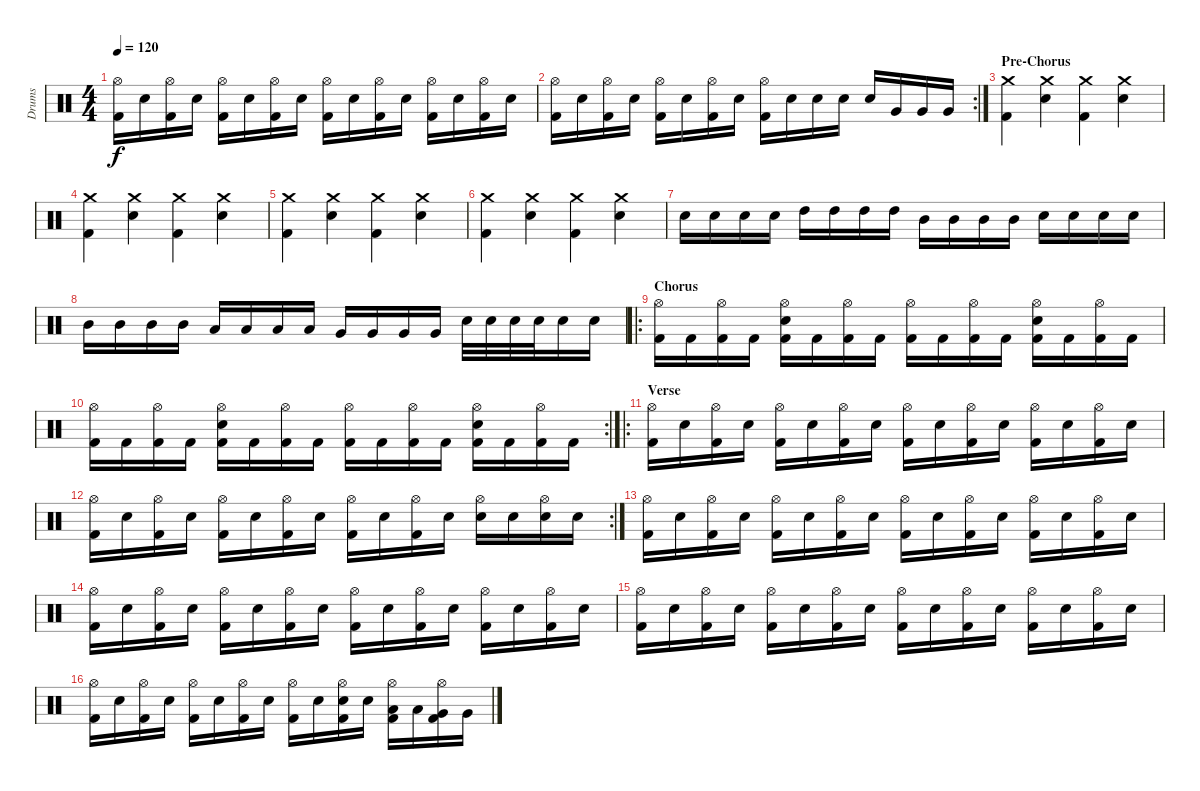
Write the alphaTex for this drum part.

\track ("Drums" "Drums") {instrument percussion}
\staff {score}
\articulation defaults
\ts (4 4)
\tempo 120
\clef neutral
\ks c
("Hi-Hat (open)" "Kick (hit) 2").16{dy f} "Electric Snare (hit)".16 ("Hi-Hat (open)" "Kick (hit) 2").16 "Electric Snare (hit)".16 ("Hi-Hat (open)" "Kick (hit) 2").16 "Electric Snare (hit)".16 ("Hi-Hat (open)" "Kick (hit) 2").16 "Electric Snare (hit)".16 ("Hi-Hat (open)" "Kick (hit) 2").16 "Electric Snare (hit)".16 ("Hi-Hat (open)" "Kick (hit) 2").16 "Electric Snare (hit)".16 ("Hi-Hat (open)" "Kick (hit) 2").16 "Electric Snare (hit)".16 ("Hi-Hat (open)" "Kick (hit) 2").16 "Electric Snare (hit)".16 |
\rc 2
("Hi-Hat (open)" "Kick (hit) 2").16 "Electric Snare (hit)".16 ("Hi-Hat (open)" "Kick (hit) 2").16 "Electric Snare (hit)".16 ("Hi-Hat (open)" "Kick (hit) 2").16 "Electric Snare (hit)".16 ("Hi-Hat (open)" "Kick (hit) 2").16 "Electric Snare (hit)".16 ("Hi-Hat (open)" "Kick (hit) 2").16 "Electric Snare (hit)".16 "Electric Snare (hit)".16 "Electric Snare (hit)".16 "Electric Snare (hit)".16 "Very Low Tom (hit)".16 "Very Low Tom (hit)".16 "Very Low Tom (hit)".16 |
\section ("" "Pre-Chorus")
("Crash medium (hit)" "Kick (hit) 2").4 ("Crash medium (hit)" "Electric Snare (hit)").4 ("Crash medium (hit)" "Kick (hit) 2").4 ("Crash medium (hit)" "Electric Snare (hit)").4 |
("Crash medium (hit)" "Kick (hit) 2").4 ("Crash medium (hit)" "Electric Snare (hit)").4 ("Crash medium (hit)" "Kick (hit) 2").4 ("Crash medium (hit)" "Electric Snare (hit)").4 |
("Crash medium (hit)" "Kick (hit) 2").4 ("Crash medium (hit)" "Electric Snare (hit)").4 ("Crash medium (hit)" "Kick (hit) 2").4 ("Crash medium (hit)" "Electric Snare (hit)").4 |
("Crash medium (hit)" "Kick (hit) 2").4 ("Crash medium (hit)" "Electric Snare (hit)").4 ("Crash medium (hit)" "Kick (hit) 2").4 ("Crash medium (hit)" "Electric Snare (hit)").4 |
"Electric Snare (hit)".16 "Electric Snare (hit)".16 "Electric Snare (hit)".16 "Electric Snare (hit)".16 "High Tom (hit)".16 "High Tom (hit)".16 "High Tom (hit)".16 "High Tom (hit)".16 "Mid Tom (hit)".16 "Mid Tom (hit)".16 "Mid Tom (hit)".16 "Mid Tom (hit)".16 "Electric Snare (hit)".16 "Electric Snare (hit)".16 "Electric Snare (hit)".16 "Electric Snare (hit)".16 |
"Mid Tom (hit)".16 "Mid Tom (hit)".16 "Mid Tom (hit)".16 "Mid Tom (hit)".16 "Low Tom (hit)".16 "Low Tom (hit)".16 "Low Tom (hit)".16 "Low Tom (hit)".16 "Very Low Tom (hit)".16 "Very Low Tom (hit)".16 "Very Low Tom (hit)".16 "Very Low Tom (hit)".16 "Electric Snare (hit)".32 "Electric Snare (hit)".32 "Electric Snare (hit)".32 "Electric Snare (hit)".32 "Electric Snare (hit)".16 "Electric Snare (hit)".16 |
\ro
\section ("" "Chorus")
("Hi-Hat (open)" "Kick (hit) 2").16 "Kick (hit) 2".16 ("Hi-Hat (open)" "Kick (hit) 2").16 "Kick (hit) 2".16 ("Hi-Hat (open)" "Electric Snare (hit)" "Kick (hit) 2").16 "Kick (hit) 2".16 ("Hi-Hat (open)" "Kick (hit) 2").16 "Kick (hit) 2".16 ("Hi-Hat (open)" "Kick (hit) 2").16 "Kick (hit) 2".16 ("Hi-Hat (open)" "Kick (hit) 2").16 "Kick (hit) 2".16 ("Hi-Hat (open)" "Electric Snare (hit)" "Kick (hit) 2").16 "Kick (hit) 2".16 ("Hi-Hat (open)" "Kick (hit) 2").16 "Kick (hit) 2".16 |
\rc 2
("Hi-Hat (open)" "Kick (hit) 2").16 "Kick (hit) 2".16 ("Hi-Hat (open)" "Kick (hit) 2").16 "Kick (hit) 2".16 ("Hi-Hat (open)" "Electric Snare (hit)" "Kick (hit) 2").16 "Kick (hit) 2".16 ("Hi-Hat (open)" "Kick (hit) 2").16 "Kick (hit) 2".16 ("Hi-Hat (open)" "Kick (hit) 2").16 "Kick (hit) 2".16 ("Hi-Hat (open)" "Kick (hit) 2").16 "Kick (hit) 2".16 ("Hi-Hat (open)" "Electric Snare (hit)" "Kick (hit) 2").16 "Kick (hit) 2".16 ("Hi-Hat (open)" "Kick (hit) 2").16 "Kick (hit) 2".16 |
\ro
\section ("" "Verse")
("Hi-Hat (open)" "Kick (hit) 2").16 "Electric Snare (hit)".16 ("Hi-Hat (open)" "Kick (hit) 2").16 "Electric Snare (hit)".16 ("Hi-Hat (open)" "Kick (hit) 2").16 "Electric Snare (hit)".16 ("Hi-Hat (open)" "Kick (hit) 2").16 "Electric Snare (hit)".16 ("Hi-Hat (open)" "Kick (hit) 2").16 "Electric Snare (hit)".16 ("Hi-Hat (open)" "Kick (hit) 2").16 "Electric Snare (hit)".16 ("Hi-Hat (open)" "Kick (hit) 2").16 "Electric Snare (hit)".16 ("Hi-Hat (open)" "Kick (hit) 2").16 "Electric Snare (hit)".16 |
\rc 2
("Hi-Hat (open)" "Kick (hit) 2").16 "Electric Snare (hit)".16 ("Hi-Hat (open)" "Kick (hit) 2").16 "Electric Snare (hit)".16 ("Hi-Hat (open)" "Kick (hit) 2").16 "Electric Snare (hit)".16 ("Hi-Hat (open)" "Kick (hit) 2").16 "Electric Snare (hit)".16 ("Hi-Hat (open)" "Kick (hit) 2").16 "Electric Snare (hit)".16 ("Hi-Hat (open)" "Kick (hit) 2").16 "Electric Snare (hit)".16 ("Hi-Hat (open)" "Electric Snare (hit)").16 "Electric Snare (hit)".16 ("Hi-Hat (open)" "Electric Snare (hit)").16 "Electric Snare (hit)".16 |
("Hi-Hat (open)" "Kick (hit) 2").16 "Electric Snare (hit)".16 ("Hi-Hat (open)" "Kick (hit) 2").16 "Electric Snare (hit)".16 ("Hi-Hat (open)" "Kick (hit) 2").16 "Electric Snare (hit)".16 ("Hi-Hat (open)" "Kick (hit) 2").16 "Electric Snare (hit)".16 ("Hi-Hat (open)" "Kick (hit) 2").16 "Electric Snare (hit)".16 ("Hi-Hat (open)" "Kick (hit) 2").16 "Electric Snare (hit)".16 ("Hi-Hat (open)" "Kick (hit) 2").16 "Electric Snare (hit)".16 ("Hi-Hat (open)" "Kick (hit) 2").16 "Electric Snare (hit)".16 |
("Hi-Hat (open)" "Kick (hit) 2").16 "Electric Snare (hit)".16 ("Hi-Hat (open)" "Kick (hit) 2").16 "Electric Snare (hit)".16 ("Hi-Hat (open)" "Kick (hit) 2").16 "Electric Snare (hit)".16 ("Hi-Hat (open)" "Kick (hit) 2").16 "Electric Snare (hit)".16 ("Hi-Hat (open)" "Kick (hit) 2").16 "Electric Snare (hit)".16 ("Hi-Hat (open)" "Kick (hit) 2").16 "Electric Snare (hit)".16 ("Hi-Hat (open)" "Kick (hit) 2").16 "Electric Snare (hit)".16 ("Hi-Hat (open)" "Kick (hit) 2").16 "Electric Snare (hit)".16 |
("Hi-Hat (open)" "Kick (hit) 2").16 "Electric Snare (hit)".16 ("Hi-Hat (open)" "Kick (hit) 2").16 "Electric Snare (hit)".16 ("Hi-Hat (open)" "Kick (hit) 2").16 "Electric Snare (hit)".16 ("Hi-Hat (open)" "Kick (hit) 2").16 "Electric Snare (hit)".16 ("Hi-Hat (open)" "Kick (hit) 2").16 "Electric Snare (hit)".16 ("Hi-Hat (open)" "Kick (hit) 2").16 "Electric Snare (hit)".16 ("Hi-Hat (open)" "Kick (hit) 2").16 "Electric Snare (hit)".16 ("Hi-Hat (open)" "Kick (hit) 2").16 "Electric Snare (hit)".16 |
("Hi-Hat (open)" "Kick (hit) 2").16 "Electric Snare (hit)".16 ("Hi-Hat (open)" "Kick (hit) 2").16 "Electric Snare (hit)".16 ("Hi-Hat (open)" "Kick (hit) 2").16 "Electric Snare (hit)".16 ("Hi-Hat (open)" "Kick (hit) 2").16 "Electric Snare (hit)".16 ("Hi-Hat (open)" "Kick (hit) 2").16 "Electric Snare (hit)".16 ("Hi-Hat (open)" "Electric Snare (hit)" "Kick (hit) 2").16 "Electric Snare (hit)".16 ("Hi-Hat (open)" "Low Tom (hit)" "Kick (hit) 2").16 "Low Tom (hit)".16 ("Hi-Hat (open)" "Very Low Tom (hit)" "Kick (hit) 2").16 "Very Low Tom (hit)".16
